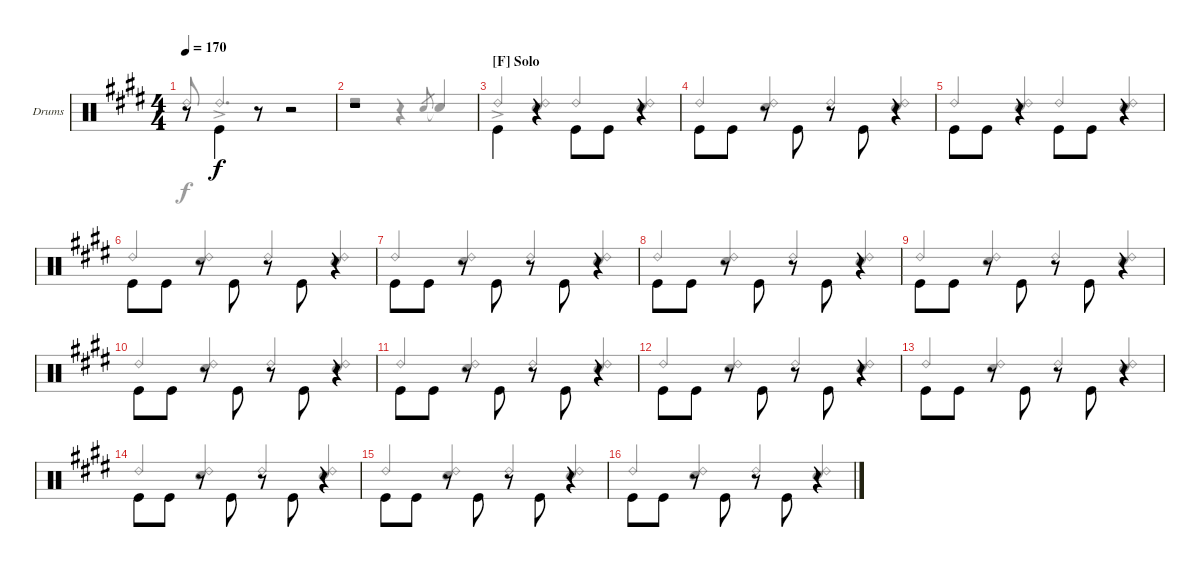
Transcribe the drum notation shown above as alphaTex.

\bracketExtendMode groupsimilarinstruments
\firstSystemTrackNameOrientation horizontal
\otherSystemsTrackNameOrientation horizontal
\track ("Drums" "Drums") {instrument percussion}
\staff {score}
\articulation defaults
\voice
\ts (4 4)
\tempo 170
\clef neutral
\scale
1.06557
\ks e
r.8{dy f} "Kick (hit)".4{beam invert} r.8 r.2 |
\scale
0.934426 r.1 |
\section ("F" "Solo")
\scale
1.06557 "Kick (hit)".4{beam invert} r.4 "Kick (hit)".8{beam invert} "Kick (hit)".8 r.4 |
\scale
0.934426 "Kick (hit)".8{beam invert} "Kick (hit)".8 r.8 "Kick (hit)".8{beam invert} r.8 "Kick (hit)".8{beam invert} r.4 |
\scale
1.06557 "Kick (hit)".8{beam invert} "Kick (hit)".8 r.4 "Kick (hit)".8{beam invert} "Kick (hit)".8 r.4 |
\scale
0.934426 "Kick (hit)".8{beam invert} "Kick (hit)".8 r.8 "Kick (hit)".8{beam invert} r.8 "Kick (hit)".8{beam invert} r.4 |
\scale
1.06557 "Kick (hit)".8{beam invert} "Kick (hit)".8 r.8 "Kick (hit)".8{beam invert} r.8 "Kick (hit)".8{beam invert} r.4 |
\scale
0.934426 "Kick (hit)".8{beam invert} "Kick (hit)".8 r.8 "Kick (hit)".8{beam invert} r.8 "Kick (hit)".8{beam invert} r.4 |
\scale
1.06557 "Kick (hit)".8{beam invert} "Kick (hit)".8 r.8 "Kick (hit)".8{beam invert} r.8 "Kick (hit)".8{beam invert} r.4 |
\scale
0.934426 "Kick (hit)".8{beam invert} "Kick (hit)".8 r.8 "Kick (hit)".8{beam invert} r.8 "Kick (hit)".8{beam invert} r.4 |
\scale
1.06557 "Kick (hit)".8{beam invert} "Kick (hit)".8 r.8 "Kick (hit)".8{beam invert} r.8 "Kick (hit)".8{beam invert} r.4 |
\scale
0.934426 "Kick (hit)".8{beam invert} "Kick (hit)".8 r.8 "Kick (hit)".8{beam invert} r.8 "Kick (hit)".8{beam invert} r.4 |
\scale
1.06557 "Kick (hit)".8{beam invert} "Kick (hit)".8 r.8 "Kick (hit)".8{beam invert} r.8 "Kick (hit)".8{beam invert} r.4 |
\scale
0.934426 "Kick (hit)".8{beam invert} "Kick (hit)".8 r.8 "Kick (hit)".8{beam invert} r.8 "Kick (hit)".8{beam invert} r.4 |
\scale
1.06557 "Kick (hit)".8{beam invert} "Kick (hit)".8 r.8 "Kick (hit)".8{beam invert} r.8 "Kick (hit)".8{beam invert} r.4 |
\scale
0.934426 "Kick (hit)".8{beam invert} "Kick (hit)".8 r.8 "Kick (hit)".8{beam invert} r.8 "Kick (hit)".8{beam invert} r.4
\voice
\clef neutral
\ottava regular
\simile none
\scale
1.06557
\ks e "Ride (bell) 2"{t}.8{dy f beam invert} "Ride (bell) 2"{ac}.4{d beam invert}
r.2 |
\scale
0.934426 r.2 r.4 "Snare (hit) 2".8{gr beam invert} "Snare (hit) 2"{t}.4{beam invert} |
\scale
1.06557 "Ride (bell) 2"{ac}.4{beam invert} ("Ride (bell) 2" "Snare (hit) 2").4{beam invert} "Ride (bell) 2".4{beam invert} ("Ride (bell) 2" "Snare (hit) 2").4{beam invert} |
\scale
0.934426 "Ride (bell) 2".4{beam invert} ("Ride (bell) 2" "Snare (hit) 2").4{beam invert} "Ride (bell) 2".4{beam invert} ("Ride (bell) 2" "Snare (hit) 2").4{beam invert} |
\scale
1.06557 "Ride (bell) 2".4{beam invert} ("Ride (bell) 2" "Snare (hit) 2").4{beam invert} "Ride (bell) 2".4{beam invert} ("Ride (bell) 2" "Snare (hit) 2").4{beam invert} |
\scale
0.934426 "Ride (bell) 2".4{beam invert} ("Ride (bell) 2" "Snare (hit) 2").4{beam invert} "Ride (bell) 2".4{beam invert} ("Ride (bell) 2" "Snare (hit) 2").4{beam invert} |
\scale
1.06557 "Ride (bell) 2".4{beam invert} ("Ride (bell) 2" "Snare (hit) 2").4{beam invert} "Ride (bell) 2".4{beam invert} ("Ride (bell) 2" "Snare (hit) 2").4{beam invert} |
\scale
0.934426 "Ride (bell) 2".4{beam invert} ("Ride (bell) 2" "Snare (hit) 2").4{beam invert} "Ride (bell) 2".4{beam invert} ("Ride (bell) 2" "Snare (hit) 2").4{beam invert} |
\scale
1.06557 "Ride (bell) 2".4{beam invert} ("Ride (bell) 2" "Snare (hit) 2").4{beam invert} "Ride (bell) 2".4{beam invert} ("Ride (bell) 2" "Snare (hit) 2").4{beam invert} |
\scale
0.934426 "Ride (bell) 2".4{beam invert} ("Ride (bell) 2" "Snare (hit) 2").4{beam invert} "Ride (bell) 2".4{beam invert} ("Ride (bell) 2" "Snare (hit) 2").4{beam invert} |
\scale
1.06557 "Ride (bell) 2".4{beam invert} ("Ride (bell) 2" "Snare (hit) 2").4{beam invert} "Ride (bell) 2".4{beam invert} ("Ride (bell) 2" "Snare (hit) 2").4{beam invert} |
\scale
0.934426 "Ride (bell) 2".4{beam invert} ("Ride (bell) 2" "Snare (hit) 2").4{beam invert} "Ride (bell) 2".4{beam invert} ("Ride (bell) 2" "Snare (hit) 2").4{beam invert} |
\scale
1.06557 "Ride (bell) 2".4{beam invert} ("Ride (bell) 2" "Snare (hit) 2").4{beam invert} "Ride (bell) 2".4{beam invert} ("Ride (bell) 2" "Snare (hit) 2").4{beam invert} |
\scale
0.934426 "Ride (bell) 2".4{beam invert} ("Ride (bell) 2" "Snare (hit) 2").4{beam invert} "Ride (bell) 2".4{beam invert} ("Ride (bell) 2" "Snare (hit) 2").4{beam invert} |
\scale
1.06557 "Ride (bell) 2".4{beam invert} ("Ride (bell) 2" "Snare (hit) 2").4{beam invert} "Ride (bell) 2".4{beam invert} ("Ride (bell) 2" "Snare (hit) 2").4{beam invert} |
\scale
0.934426 "Ride (bell) 2".4{beam invert} ("Ride (bell) 2" "Snare (hit) 2").4{beam invert} "Ride (bell) 2".4{beam invert} ("Ride (bell) 2" "Snare (hit) 2").4{beam invert}
